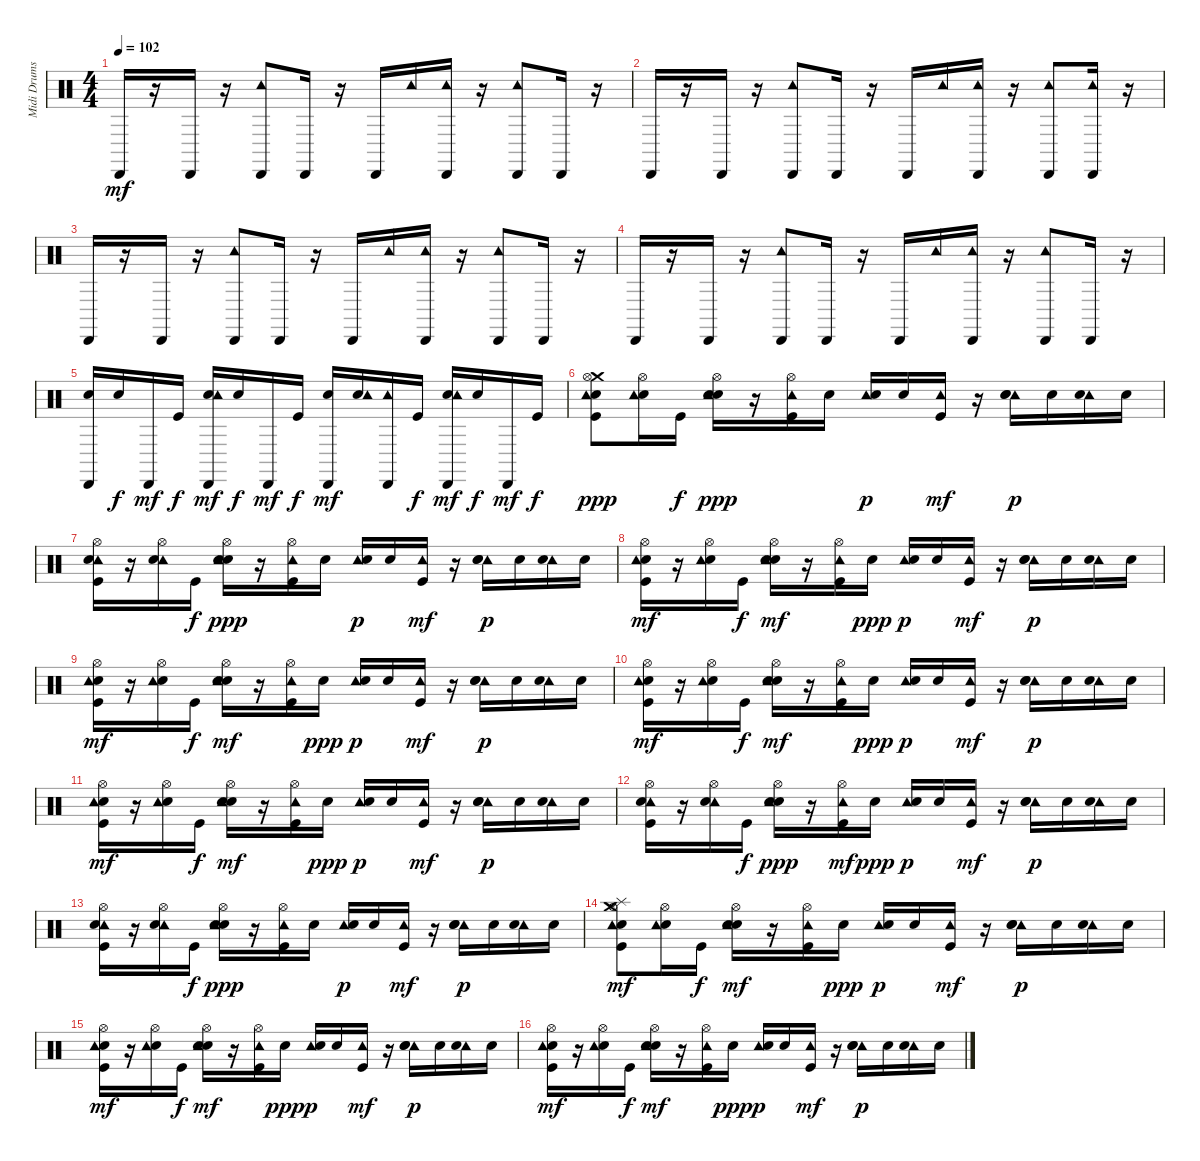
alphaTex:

\track ("Midi Drums" "Midi Drums") {instrument percussion}
\staff {score}
\articulation defaults
\ts (4 4)
\tempo 102
\clef neutral
\ks c "Cabasa (hit)".16{dy mf}
r.16 "Cabasa (hit)".16 r.16 ("Tambourine (hit)" "Cabasa (hit)").8 "Cabasa (hit)".16 r.16 "Cabasa (hit)".16 "Tambourine (hit)".16 ("Tambourine (hit)" "Cabasa (hit)").16 r.16 ("Tambourine (hit)" "Cabasa (hit)").8 "Cabasa (hit)".16 r.16 |
"Cabasa (hit)".16 r.16 "Cabasa (hit)".16 r.16 ("Tambourine (hit)" "Cabasa (hit)").8 "Cabasa (hit)".16 r.16 "Cabasa (hit)".16 "Tambourine (hit)".16 ("Tambourine (hit)" "Cabasa (hit)").16 r.16 ("Tambourine (hit)" "Cabasa (hit)").8 ("Tambourine (hit)" "Cabasa (hit)").16 r.16 |
"Cabasa (hit)".16 r.16 "Cabasa (hit)".16 r.16 ("Tambourine (hit)" "Cabasa (hit)").8 "Cabasa (hit)".16 r.16 "Cabasa (hit)".16 "Tambourine (hit)".16 ("Tambourine (hit)" "Cabasa (hit)").16 r.16 ("Tambourine (hit)" "Cabasa (hit)").8 "Cabasa (hit)".16 r.16 |
"Cabasa (hit)".16 r.16 "Cabasa (hit)".16 r.16 ("Tambourine (hit)" "Cabasa (hit)").8 "Cabasa (hit)".16 r.16 "Cabasa (hit)".16 "Tambourine (hit)".16 ("Tambourine (hit)" "Cabasa (hit)").16 r.16 ("Tambourine (hit)" "Cabasa (hit)").8 "Cabasa (hit)".16 r.16 |
("Snare (hit) 2" "Cabasa (hit)").16 "Snare (hit) 2".16{dy f} "Cabasa (hit)".16{dy mf} "Kick (hit)".16{dy f} ("Snare (hit) 2" "Tambourine (hit)" "Cabasa (hit)").16{dy mf} "Snare (hit) 2".16{dy f} "Cabasa (hit)".16{dy mf} "Kick (hit)".16{dy f} ("Snare (hit) 2" "Cabasa (hit)").16{dy mf} ("Snare (hit) 2" "Tambourine (hit)").16 ("Tambourine (hit)" "Cabasa (hit)").16 "Kick (hit)".16{dy f} ("Snare (hit) 2" "Tambourine (hit)" "Cabasa (hit)").16{dy mf} "Snare (hit) 2".16{dy f} "Cabasa (hit)".16{dy mf} "Kick (hit)".16{dy f} |
("Crash medium (hit)" "Electric Snare (hit)" "Kick (hit)" "Tambourine (hit)" "Hi-Hat (open)").8{dy ppp} ("Electric Snare (hit)" "Tambourine (hit)" "Hi-Hat (open)").16 "Kick (hit)".16{dy f} ("Electric Snare (hit)" "Snare (hit) 2" "Tambourine (hit)" "Hi-Hat (open)").16{dy ppp} r.16 ("Kick (hit)" "Tambourine (hit)" "Hi-Hat (open)").16 "Electric Snare (hit)".16 ("Tambourine (hit)" "Electric Snare (hit)").16{dy p} "Electric Snare (hit)".16 ("Kick (hit)" "Tambourine (hit)").16{dy mf} r.16 ("Tambourine (hit)" "Electric Snare (hit)" "Snare (hit) 2").16{dy p} "Electric Snare (hit)".16 ("Tambourine (hit)" "Electric Snare (hit)").16 "Electric Snare (hit)".16 |
("Kick (hit)" "Tambourine (hit)" "Hi-Hat (open)" "Electric Snare (hit)").16 r.16 ("Tambourine (hit)" "Hi-Hat (open)" "Electric Snare (hit)").16 "Kick (hit)".16{dy f} ("Snare (hit) 2" "Tambourine (hit)" "Hi-Hat (open)" "Electric Snare (hit)").16{dy ppp} r.16 ("Kick (hit)" "Tambourine (hit)" "Hi-Hat (open)").16 "Electric Snare (hit)".16 ("Tambourine (hit)" "Electric Snare (hit)").16{dy p} "Electric Snare (hit)".16 ("Kick (hit)" "Tambourine (hit)").16{dy mf} r.16 ("Tambourine (hit)" "Electric Snare (hit)" "Snare (hit) 2").16{dy p} "Electric Snare (hit)".16 ("Tambourine (hit)" "Electric Snare (hit)").16 "Electric Snare (hit)".16 |
("Hi-Hat (open)" "Kick (hit)" "Electric Snare (hit)" "Tambourine (hit)").16{dy mf} r.16 ("Hi-Hat (open)" "Electric Snare (hit)" "Tambourine (hit)").16 "Kick (hit)".16{dy f} ("Hi-Hat (open)" "Snare (hit) 2" "Electric Snare (hit)" "Tambourine (hit)").16{dy mf} r.16 ("Hi-Hat (open)" "Kick (hit)" "Tambourine (hit)").16 "Electric Snare (hit)".16{dy ppp} ("Tambourine (hit)" "Electric Snare (hit)").16{dy p} "Electric Snare (hit)".16 ("Kick (hit)" "Tambourine (hit)").16{dy mf} r.16 ("Tambourine (hit)" "Electric Snare (hit)" "Snare (hit) 2").16{dy p} "Electric Snare (hit)".16 ("Tambourine (hit)" "Electric Snare (hit)").16 "Electric Snare (hit)".16 |
("Kick (hit)" "Hi-Hat (open)" "Electric Snare (hit)" "Tambourine (hit)").16{dy mf} r.16 ("Hi-Hat (open)" "Electric Snare (hit)" "Tambourine (hit)").16 "Kick (hit)".16{dy f} ("Snare (hit) 2" "Hi-Hat (open)" "Electric Snare (hit)" "Tambourine (hit)").16{dy mf} r.16 ("Kick (hit)" "Hi-Hat (open)" "Tambourine (hit)").16 "Electric Snare (hit)".16{dy ppp} ("Tambourine (hit)" "Electric Snare (hit)").16{dy p} "Electric Snare (hit)".16 ("Kick (hit)" "Tambourine (hit)").16{dy mf} r.16 ("Tambourine (hit)" "Electric Snare (hit)" "Snare (hit) 2").16{dy p} "Electric Snare (hit)".16 ("Tambourine (hit)" "Electric Snare (hit)").16 "Electric Snare (hit)".16 |
("Hi-Hat (open)" "Kick (hit)" "Electric Snare (hit)" "Tambourine (hit)").16{dy mf} r.16 ("Hi-Hat (open)" "Electric Snare (hit)" "Tambourine (hit)").16 "Kick (hit)".16{dy f} ("Hi-Hat (open)" "Snare (hit) 2" "Electric Snare (hit)" "Tambourine (hit)").16{dy mf} r.16 ("Hi-Hat (open)" "Kick (hit)" "Tambourine (hit)").16 "Electric Snare (hit)".16{dy ppp} ("Tambourine (hit)" "Electric Snare (hit)").16{dy p} "Electric Snare (hit)".16 ("Kick (hit)" "Tambourine (hit)").16{dy mf} r.16 ("Tambourine (hit)" "Electric Snare (hit)" "Snare (hit) 2").16{dy p} "Electric Snare (hit)".16 ("Tambourine (hit)" "Electric Snare (hit)").16 "Electric Snare (hit)".16 |
("Hi-Hat (open)" "Kick (hit)" "Electric Snare (hit)" "Tambourine (hit)").16{dy mf} r.16 ("Hi-Hat (open)" "Electric Snare (hit)" "Tambourine (hit)").16 "Kick (hit)".16{dy f} ("Hi-Hat (open)" "Snare (hit) 2" "Electric Snare (hit)" "Tambourine (hit)").16{dy mf} r.16 ("Hi-Hat (open)" "Kick (hit)" "Tambourine (hit)").16 "Electric Snare (hit)".16{dy ppp} ("Tambourine (hit)" "Electric Snare (hit)").16{dy p} "Electric Snare (hit)".16 ("Kick (hit)" "Tambourine (hit)").16{dy mf} r.16 ("Tambourine (hit)" "Electric Snare (hit)" "Snare (hit) 2").16{dy p} "Electric Snare (hit)".16 ("Tambourine (hit)" "Electric Snare (hit)").16 "Electric Snare (hit)".16 |
("Hi-Hat (open)" "Kick (hit)" "Tambourine (hit)" "Electric Snare (hit)").16 r.16 ("Hi-Hat (open)" "Tambourine (hit)" "Electric Snare (hit)").16 "Kick (hit)".16{dy f} ("Hi-Hat (open)" "Snare (hit) 2" "Tambourine (hit)" "Electric Snare (hit)").16{dy ppp} r.16 ("Hi-Hat (open)" "Kick (hit)" "Tambourine (hit)").16{dy mf} "Electric Snare (hit)".16{dy ppp} ("Tambourine (hit)" "Electric Snare (hit)").16{dy p} "Electric Snare (hit)".16 ("Kick (hit)" "Tambourine (hit)").16{dy mf} r.16 ("Tambourine (hit)" "Electric Snare (hit)" "Snare (hit) 2").16{dy p} "Electric Snare (hit)".16 ("Tambourine (hit)" "Electric Snare (hit)").16 "Electric Snare (hit)".16 |
("Kick (hit)" "Tambourine (hit)" "Hi-Hat (open)" "Electric Snare (hit)").16 r.16 ("Tambourine (hit)" "Hi-Hat (open)" "Electric Snare (hit)").16 "Kick (hit)".16{dy f} ("Snare (hit) 2" "Tambourine (hit)" "Hi-Hat (open)" "Electric Snare (hit)").16{dy ppp} r.16 ("Kick (hit)" "Tambourine (hit)" "Hi-Hat (open)").16 "Electric Snare (hit)".16 ("Tambourine (hit)" "Electric Snare (hit)").16{dy p} "Electric Snare (hit)".16 ("Kick (hit)" "Tambourine (hit)").16{dy mf} r.16 ("Tambourine (hit)" "Electric Snare (hit)" "Snare (hit) 2").16{dy p} "Electric Snare (hit)".16 ("Tambourine (hit)" "Electric Snare (hit)").16 "Electric Snare (hit)".16 |
("Splash (hit)" "Crash medium (hit)" "Kick (hit)" "Hi-Hat (open)" "Electric Snare (hit)" "Tambourine (hit)").8{dy mf} ("Hi-Hat (open)" "Electric Snare (hit)" "Tambourine (hit)").16 "Kick (hit)".16{dy f} ("Snare (hit) 2" "Hi-Hat (open)" "Electric Snare (hit)" "Tambourine (hit)").16{dy mf} r.16 ("Kick (hit)" "Hi-Hat (open)" "Tambourine (hit)").16 "Electric Snare (hit)".16{dy ppp} ("Tambourine (hit)" "Electric Snare (hit)").16{dy p} "Electric Snare (hit)".16 ("Kick (hit)" "Tambourine (hit)").16{dy mf} r.16 ("Tambourine (hit)" "Electric Snare (hit)" "Snare (hit) 2").16{dy p} "Electric Snare (hit)".16 ("Tambourine (hit)" "Electric Snare (hit)").16 "Electric Snare (hit)".16 |
("Hi-Hat (open)" "Kick (hit)" "Electric Snare (hit)" "Tambourine (hit)").16{dy mf} r.16 ("Hi-Hat (open)" "Electric Snare (hit)" "Tambourine (hit)").16 "Kick (hit)".16{dy f} ("Hi-Hat (open)" "Snare (hit) 2" "Electric Snare (hit)" "Tambourine (hit)").16{dy mf} r.16 ("Hi-Hat (open)" "Kick (hit)" "Tambourine (hit)").16 "Electric Snare (hit)".16{dy ppp} ("Tambourine (hit)" "Electric Snare (hit)").16{dy p} "Electric Snare (hit)".16 ("Kick (hit)" "Tambourine (hit)").16{dy mf} r.16 ("Tambourine (hit)" "Electric Snare (hit)" "Snare (hit) 2").16{dy p} "Electric Snare (hit)".16 ("Tambourine (hit)" "Electric Snare (hit)").16 "Electric Snare (hit)".16 |
("Electric Snare (hit)" "Hi-Hat (open)" "Kick (hit)" "Tambourine (hit)").16{dy mf} r.16 ("Electric Snare (hit)" "Hi-Hat (open)" "Tambourine (hit)").16 "Kick (hit)".16{dy f} ("Electric Snare (hit)" "Hi-Hat (open)" "Snare (hit) 2" "Tambourine (hit)").16{dy mf} r.16 ("Hi-Hat (open)" "Kick (hit)" "Tambourine (hit)").16 "Electric Snare (hit)".16{dy ppp} ("Tambourine (hit)" "Electric Snare (hit)").16{dy p} "Electric Snare (hit)".16 ("Kick (hit)" "Tambourine (hit)").16{dy mf} r.16 ("Tambourine (hit)" "Electric Snare (hit)" "Snare (hit) 2").16{dy p} "Electric Snare (hit)".16 ("Tambourine (hit)" "Electric Snare (hit)").16 "Electric Snare (hit)".16
